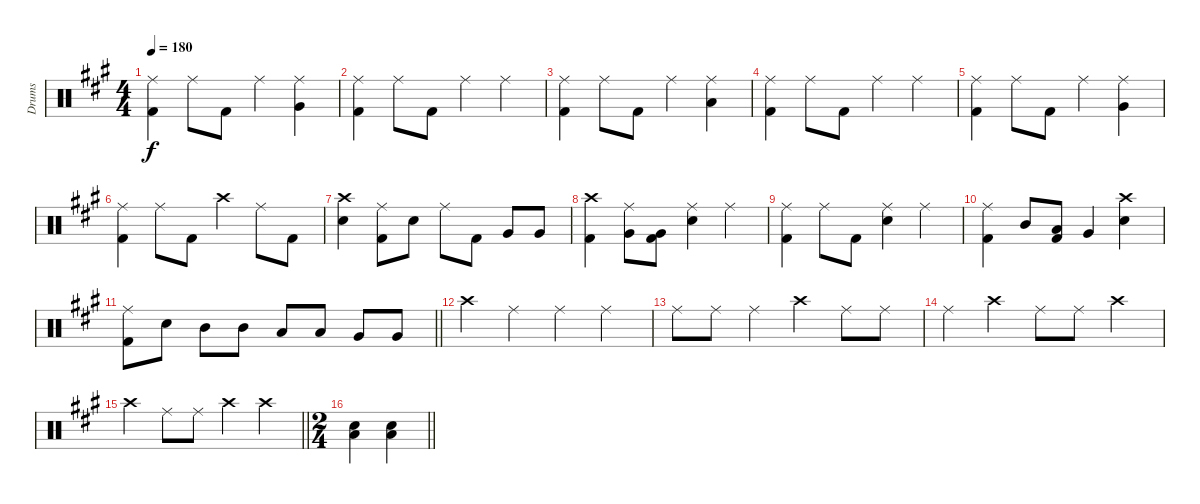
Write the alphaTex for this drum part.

\track ("Drums" "Drums") {instrument percussion}
\staff {score}
\articulation defaults
\ts (4 4)
\tempo 180
\clef neutral
\ks a
("Ride (middle)" "Kick (hit) 2").4{dy f} "Ride (middle)".8 "Kick (hit) 2".8 "Ride (middle)".4 ("Ride (middle)" "Very Low Tom (hit)").4 |
("Ride (middle)" "Kick (hit) 2").4 "Ride (middle)".8 "Kick (hit) 2".8 "Ride (middle)".4 "Ride (middle)".4 |
("Ride (middle)" "Kick (hit) 2").4 "Ride (middle)".8 "Kick (hit) 2".8 "Ride (middle)".4 ("Ride (middle)" "Low Floor Tom (hit)").4 |
("Ride (middle)" "Kick (hit) 2").4 "Ride (middle)".8 "Kick (hit) 2".8 "Ride (middle)".4 "Ride (middle)".4 |
("Ride (middle)" "Kick (hit) 2").4 "Ride (middle)".8 "Kick (hit) 2".8 "Ride (middle)".4 ("Ride (middle)" "Very Low Tom (hit)").4 |
("Ride (middle)" "Kick (hit) 2").4 "Ride (middle)".8 "Kick (hit) 2".8 "Crash high (hit)".4 "Ride (middle)".8 "Kick (hit) 2".8 |
("Crash high (hit)" "Electric Snare (hit)").4 ("Ride (middle)" "Kick (hit) 2").8 "Electric Snare (hit)".8 "Ride (middle)".8 "Kick (hit) 2".8 "Very Low Tom (hit)".8 "Very Low Tom (hit)".8 |
("Crash high (hit)" "Kick (hit) 2").4 ("Ride (middle)" "Very Low Tom (hit)").8 ("Very Low Tom (hit)" "Kick (hit) 2").8 ("Ride (middle)" "Electric Snare (hit)").4 "Ride (middle)".4 |
("Ride (middle)" "Kick (hit) 2").4 "Ride (middle)".8 "Kick (hit) 2".8 ("Ride (middle)" "Electric Snare (hit)").4 "Ride (middle)".4 |
("Ride (middle)" "Kick (hit) 2").4 "Mid Tom (hit)".8 ("Low Tom (hit)" "Kick (hit) 2").8 "Very Low Tom (hit)".4 ("Crash high (hit)" "Electric Snare (hit)").4 |
\barLineRight lightlight
("Ride (middle)" "Kick (hit) 2").8 "Electric Snare (hit)".8 "Mid Tom (hit)".8 "Mid Tom (hit)".8 "Low Tom (hit)".8 "Low Tom (hit)".8 "Very Low Tom (hit)".8 "Very Low Tom (hit)".8 |
"Crash high (hit)".4 "Ride (middle)".4 "Ride (middle)".4 "Ride (middle)".4 |
"Ride (middle)".8 "Ride (middle)".8 "Ride (middle)".4 "Crash high (hit)".4 "Ride (middle)".8 "Ride (middle)".8 |
"Ride (middle)".4 "Crash high (hit)".4 "Ride (middle)".8 "Ride (middle)".8 "Crash high (hit)".4 |
\barLineRight lightlight "Crash high (hit)".4 "Ride (middle)".8 "Ride (middle)".8 "Crash high (hit)".4 "Crash high (hit)".4
|
\ts (2 4)
\barLineRight lightlight
("Electric Snare (hit)" "Low Floor Tom (hit)").4 ("Electric Snare (hit)" "Low Floor Tom (hit)").4
